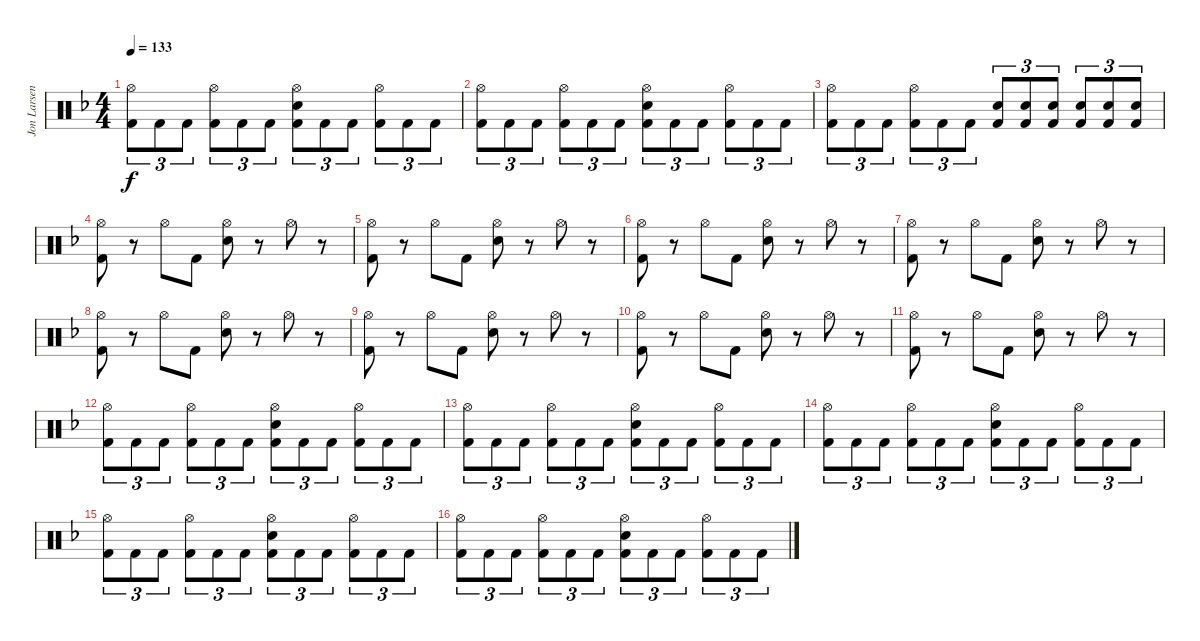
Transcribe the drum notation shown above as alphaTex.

\track ("Jon Larsen" "Jon Larsen") {instrument percussion}
\staff {score}
\articulation defaults
\ts (4 4)
\tempo 133
\clef neutral
\ks f
("Hi-Hat (open)" "Kick (hit) 2").8{tu (3 2) dy f} "Kick (hit) 2".8{tu (3 2)} "Kick (hit) 2".8{tu (3 2)} ("Hi-Hat (open)" "Kick (hit) 2").8{tu (3 2)} "Kick (hit) 2".8{tu (3 2)} "Kick (hit) 2".8{tu (3 2)} ("Hi-Hat (open)" "Kick (hit) 2" "Electric Snare (hit)").8{tu (3 2)} "Kick (hit) 2".8{tu (3 2)} "Kick (hit) 2".8{tu (3 2)} ("Hi-Hat (open)" "Kick (hit) 2").8{tu (3 2)} "Kick (hit) 2".8{tu (3 2)} "Kick (hit) 2".8{tu (3 2)} |
("Hi-Hat (open)" "Kick (hit) 2").8{tu (3 2)} "Kick (hit) 2".8{tu (3 2)} "Kick (hit) 2".8{tu (3 2)} ("Hi-Hat (open)" "Kick (hit) 2").8{tu (3 2)} "Kick (hit) 2".8{tu (3 2)} "Kick (hit) 2".8{tu (3 2)} ("Hi-Hat (open)" "Kick (hit) 2" "Electric Snare (hit)").8{tu (3 2)} "Kick (hit) 2".8{tu (3 2)} "Kick (hit) 2".8{tu (3 2)} ("Hi-Hat (open)" "Kick (hit) 2").8{tu (3 2)} "Kick (hit) 2".8{tu (3 2)} "Kick (hit) 2".8{tu (3 2)} |
("Hi-Hat (open)" "Kick (hit) 2").8{tu (3 2)} "Kick (hit) 2".8{tu (3 2)} "Kick (hit) 2".8{tu (3 2)} ("Hi-Hat (open)" "Kick (hit) 2").8{tu (3 2)} "Kick (hit) 2".8{tu (3 2)} "Kick (hit) 2".8{tu (3 2)} ("Kick (hit) 2" "Electric Snare (hit)").8{tu (3 2)} ("Kick (hit) 2" "Electric Snare (hit)").8{tu (3 2)} ("Kick (hit) 2" "Electric Snare (hit)").8{tu (3 2)} ("Kick (hit) 2" "Electric Snare (hit)").8{tu (3 2)} ("Kick (hit) 2" "Electric Snare (hit)").8{tu (3 2)} ("Kick (hit) 2" "Electric Snare (hit)").8{tu (3 2)} |
("Hi-Hat (open)" "Kick (hit) 2").8 r.8 "Hi-Hat (open)".8 "Kick (hit) 2".8 ("Hi-Hat (open)" "Electric Snare (hit)").8 r.8 "Hi-Hat (open)".8 r.8 |
("Hi-Hat (open)" "Kick (hit) 2").8 r.8 "Hi-Hat (open)".8 "Kick (hit) 2".8 ("Hi-Hat (open)" "Electric Snare (hit)").8 r.8 "Hi-Hat (open)".8 r.8 |
("Hi-Hat (open)" "Kick (hit) 2").8 r.8 "Hi-Hat (open)".8 "Kick (hit) 2".8 ("Hi-Hat (open)" "Electric Snare (hit)").8 r.8 "Hi-Hat (open)".8 r.8 |
("Hi-Hat (open)" "Kick (hit) 2").8 r.8 "Hi-Hat (open)".8 "Kick (hit) 2".8 ("Hi-Hat (open)" "Electric Snare (hit)").8 r.8 "Hi-Hat (open)".8 r.8 |
("Hi-Hat (open)" "Kick (hit) 2").8 r.8 "Hi-Hat (open)".8 "Kick (hit) 2".8 ("Hi-Hat (open)" "Electric Snare (hit)").8 r.8 "Hi-Hat (open)".8 r.8 |
("Hi-Hat (open)" "Kick (hit) 2").8 r.8 "Hi-Hat (open)".8 "Kick (hit) 2".8 ("Hi-Hat (open)" "Electric Snare (hit)").8 r.8 "Hi-Hat (open)".8 r.8 |
("Hi-Hat (open)" "Kick (hit) 2").8 r.8 "Hi-Hat (open)".8 "Kick (hit) 2".8 ("Hi-Hat (open)" "Electric Snare (hit)").8 r.8 "Hi-Hat (open)".8 r.8 |
("Hi-Hat (open)" "Kick (hit) 2").8 r.8 "Hi-Hat (open)".8 "Kick (hit) 2".8 ("Hi-Hat (open)" "Electric Snare (hit)").8 r.8 "Hi-Hat (open)".8 r.8 |
("Hi-Hat (open)" "Kick (hit) 2").8{tu (3 2)} "Kick (hit) 2".8{tu (3 2)} "Kick (hit) 2".8{tu (3 2)} ("Hi-Hat (open)" "Kick (hit) 2").8{tu (3 2)} "Kick (hit) 2".8{tu (3 2)} "Kick (hit) 2".8{tu (3 2)} ("Hi-Hat (open)" "Kick (hit) 2" "Electric Snare (hit)").8{tu (3 2)} "Kick (hit) 2".8{tu (3 2)} "Kick (hit) 2".8{tu (3 2)} ("Hi-Hat (open)" "Kick (hit) 2").8{tu (3 2)} "Kick (hit) 2".8{tu (3 2)} "Kick (hit) 2".8{tu (3 2)} |
("Hi-Hat (open)" "Kick (hit) 2").8{tu (3 2)} "Kick (hit) 2".8{tu (3 2)} "Kick (hit) 2".8{tu (3 2)} ("Hi-Hat (open)" "Kick (hit) 2").8{tu (3 2)} "Kick (hit) 2".8{tu (3 2)} "Kick (hit) 2".8{tu (3 2)} ("Hi-Hat (open)" "Kick (hit) 2" "Electric Snare (hit)").8{tu (3 2)} "Kick (hit) 2".8{tu (3 2)} "Kick (hit) 2".8{tu (3 2)} ("Hi-Hat (open)" "Kick (hit) 2").8{tu (3 2)} "Kick (hit) 2".8{tu (3 2)} "Kick (hit) 2".8{tu (3 2)} |
("Hi-Hat (open)" "Kick (hit) 2").8{tu (3 2)} "Kick (hit) 2".8{tu (3 2)} "Kick (hit) 2".8{tu (3 2)} ("Hi-Hat (open)" "Kick (hit) 2").8{tu (3 2)} "Kick (hit) 2".8{tu (3 2)} "Kick (hit) 2".8{tu (3 2)} ("Hi-Hat (open)" "Kick (hit) 2" "Electric Snare (hit)").8{tu (3 2)} "Kick (hit) 2".8{tu (3 2)} "Kick (hit) 2".8{tu (3 2)} ("Hi-Hat (open)" "Kick (hit) 2").8{tu (3 2)} "Kick (hit) 2".8{tu (3 2)} "Kick (hit) 2".8{tu (3 2)} |
("Hi-Hat (open)" "Kick (hit) 2").8{tu (3 2)} "Kick (hit) 2".8{tu (3 2)} "Kick (hit) 2".8{tu (3 2)} ("Hi-Hat (open)" "Kick (hit) 2").8{tu (3 2)} "Kick (hit) 2".8{tu (3 2)} "Kick (hit) 2".8{tu (3 2)} ("Hi-Hat (open)" "Kick (hit) 2" "Electric Snare (hit)").8{tu (3 2)} "Kick (hit) 2".8{tu (3 2)} "Kick (hit) 2".8{tu (3 2)} ("Hi-Hat (open)" "Kick (hit) 2").8{tu (3 2)} "Kick (hit) 2".8{tu (3 2)} "Kick (hit) 2".8{tu (3 2)} |
("Hi-Hat (open)" "Kick (hit) 2").8{tu (3 2)} "Kick (hit) 2".8{tu (3 2)} "Kick (hit) 2".8{tu (3 2)} ("Hi-Hat (open)" "Kick (hit) 2").8{tu (3 2)} "Kick (hit) 2".8{tu (3 2)} "Kick (hit) 2".8{tu (3 2)} ("Hi-Hat (open)" "Kick (hit) 2" "Electric Snare (hit)").8{tu (3 2)} "Kick (hit) 2".8{tu (3 2)} "Kick (hit) 2".8{tu (3 2)} ("Hi-Hat (open)" "Kick (hit) 2").8{tu (3 2)} "Kick (hit) 2".8{tu (3 2)} "Kick (hit) 2".8{tu (3 2)}
